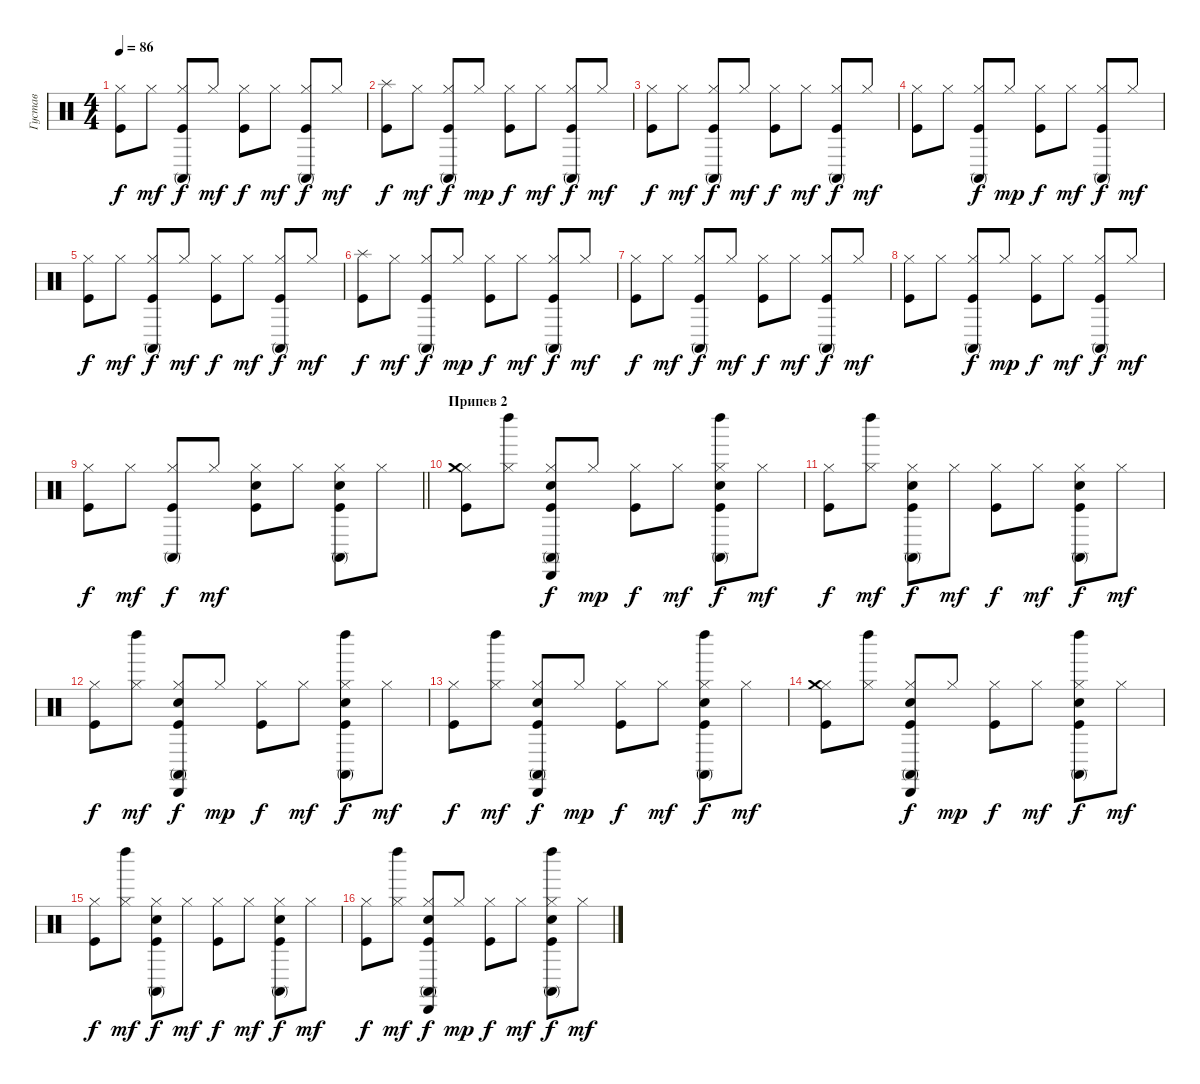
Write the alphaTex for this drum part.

\track ("Густав" "Густав") {instrument percussion}
\staff {score}
\articulation defaults
\ts (4 4)
\tempo 86
\clef neutral
\ks c
("Hi-Hat (closed)" "Kick (hit)").8{dy f} "Hi-Hat (closed)".8{dy mf} ("Conga high (mute)" "Hi-Hat (closed)" "Kick (hit)").8{dy f} "Hi-Hat (closed)".8{dy mf} ("Hi-Hat (closed)" "Kick (hit)").8{dy f} "Hi-Hat (closed)".8{dy mf} ("Conga high (mute)" "Hi-Hat (closed)" "Kick (hit)").8{dy f} "Hi-Hat (closed)".8{dy mf} |
("Splash (hit)" "Kick (hit)").8{dy f} "Hi-Hat (closed)".8{dy mf} ("Conga high (mute)" "Hi-Hat (closed)" "Kick (hit)").8{dy f} "Hi-Hat (closed)".8{dy mp} ("Hi-Hat (closed)" "Kick (hit)").8{dy f} "Hi-Hat (closed)".8{dy mf} ("Conga high (mute)" "Hi-Hat (closed)" "Kick (hit)").8{dy f} "Hi-Hat (closed)".8{dy mf} |
("Hi-Hat (closed)" "Kick (hit)").8{dy f} "Hi-Hat (closed)".8{dy mf} ("Conga high (mute)" "Hi-Hat (closed)" "Kick (hit)").8{dy f} "Hi-Hat (closed)".8{dy mf} ("Hi-Hat (closed)" "Kick (hit)").8{dy f} "Hi-Hat (closed)".8{dy mf} ("Conga high (mute)" "Hi-Hat (closed)" "Kick (hit)").8{dy f} "Hi-Hat (closed)".8{dy mf} |
("Hi-Hat (closed)" "Kick (hit)").8 "Hi-Hat (closed)".8 ("Conga high (mute)" "Hi-Hat (closed)" "Kick (hit)").8{dy f} "Hi-Hat (closed)".8{dy mp} ("Hi-Hat (closed)" "Kick (hit)").8{dy f} "Hi-Hat (closed)".8{dy mf} ("Conga high (mute)" "Hi-Hat (closed)" "Kick (hit)").8{dy f} "Hi-Hat (closed)".8{dy mf} |
("Hi-Hat (closed)" "Kick (hit)").8{dy f} "Hi-Hat (closed)".8{dy mf} ("Conga high (mute)" "Hi-Hat (closed)" "Kick (hit)").8{dy f} "Hi-Hat (closed)".8{dy mf} ("Hi-Hat (closed)" "Kick (hit)").8{dy f} "Hi-Hat (closed)".8{dy mf} ("Conga high (mute)" "Hi-Hat (closed)" "Kick (hit)").8{dy f} "Hi-Hat (closed)".8{dy mf} |
("Splash (hit)" "Kick (hit)").8{dy f} "Hi-Hat (closed)".8{dy mf} ("Conga high (mute)" "Hi-Hat (closed)" "Kick (hit)").8{dy f} "Hi-Hat (closed)".8{dy mp} ("Hi-Hat (closed)" "Kick (hit)").8{dy f} "Hi-Hat (closed)".8{dy mf} ("Conga high (mute)" "Hi-Hat (closed)" "Kick (hit)").8{dy f} "Hi-Hat (closed)".8{dy mf} |
("Hi-Hat (closed)" "Kick (hit)").8{dy f} "Hi-Hat (closed)".8{dy mf} ("Conga high (mute)" "Hi-Hat (closed)" "Kick (hit)").8{dy f} "Hi-Hat (closed)".8{dy mf} ("Hi-Hat (closed)" "Kick (hit)").8{dy f} "Hi-Hat (closed)".8{dy mf} ("Conga high (mute)" "Hi-Hat (closed)" "Kick (hit)").8{dy f} "Hi-Hat (closed)".8{dy mf} |
("Hi-Hat (closed)" "Kick (hit)").8 "Hi-Hat (closed)".8 ("Conga high (mute)" "Hi-Hat (closed)" "Kick (hit)").8{dy f} "Hi-Hat (closed)".8{dy mp} ("Hi-Hat (closed)" "Kick (hit)").8{dy f} "Hi-Hat (closed)".8{dy mf} ("Conga high (mute)" "Hi-Hat (closed)" "Kick (hit)").8{dy f} "Hi-Hat (closed)".8{dy mf} |
\barLineRight lightlight
("Hi-Hat (closed)" "Kick (hit)").8{dy f} "Hi-Hat (closed)".8{dy mf} ("Conga high (mute)" "Hi-Hat (closed)" "Kick (hit)").8{dy f} "Hi-Hat (closed)".8{dy mf} ("Hi-Hat (closed)" "Kick (hit)" "Snare (hit) 2").8 "Hi-Hat (closed)".8 ("Snare (hit) 2" "Conga high (mute)" "Hi-Hat (closed)" "Kick (hit)").8 "Hi-Hat (closed)".8 |
\section ("" "Припев 2")
("Hi-Hat (closed)" "Crash medium (hit)" "Kick (hit)").8 ("Hi-Hat (closed)" "Left Maraca (hit)").8 ("Cabasa (hit)" "Snare (hit) 2" "Conga high (mute)" "Hi-Hat (closed)" "Kick (hit)").8{dy f} "Hi-Hat (closed)".8{dy mp} ("Hi-Hat (closed)" "Kick (hit)").8{dy f} "Hi-Hat (closed)".8{dy mf} ("Left Maraca (hit)" "Snare (hit) 2" "Conga high (mute)" "Hi-Hat (closed)" "Kick (hit)").8{dy f} "Hi-Hat (closed)".8{dy mf} |
("Hi-Hat (closed)" "Kick (hit)").8{dy f} ("Hi-Hat (closed)" "Left Maraca (hit)").8{dy mf} ("Snare (hit) 2" "Conga high (mute)" "Hi-Hat (closed)" "Kick (hit)").8{dy f} "Hi-Hat (closed)".8{dy mf} ("Hi-Hat (closed)" "Kick (hit)").8{dy f} "Hi-Hat (closed)".8{dy mf} ("Snare (hit) 2" "Conga high (mute)" "Hi-Hat (closed)" "Kick (hit)").8{dy f} "Hi-Hat (closed)".8{dy mf} |
("Hi-Hat (closed)" "Kick (hit)").8{dy f} ("Hi-Hat (closed)" "Left Maraca (hit)").8{dy mf} ("Cabasa (hit)" "Snare (hit) 2" "Conga high (mute)" "Hi-Hat (closed)" "Kick (hit)").8{dy f} "Hi-Hat (closed)".8{dy mp} ("Hi-Hat (closed)" "Kick (hit)").8{dy f} "Hi-Hat (closed)".8{dy mf} ("Left Maraca (hit)" "Snare (hit) 2" "Conga high (mute)" "Hi-Hat (closed)" "Kick (hit)").8{dy f} "Hi-Hat (closed)".8{dy mf} |
("Hi-Hat (closed)" "Kick (hit)").8{dy f} ("Hi-Hat (closed)" "Left Maraca (hit)").8{dy mf} ("Cabasa (hit)" "Snare (hit) 2" "Conga high (mute)" "Hi-Hat (closed)" "Kick (hit)").8{dy f} "Hi-Hat (closed)".8{dy mp} ("Hi-Hat (closed)" "Kick (hit)").8{dy f} "Hi-Hat (closed)".8{dy mf} ("Left Maraca (hit)" "Snare (hit) 2" "Conga high (mute)" "Hi-Hat (closed)" "Kick (hit)").8{dy f} "Hi-Hat (closed)".8{dy mf} |
("Hi-Hat (closed)" "Crash medium (hit)" "Kick (hit)").8 ("Hi-Hat (closed)" "Left Maraca (hit)").8 ("Cabasa (hit)" "Snare (hit) 2" "Conga high (mute)" "Hi-Hat (closed)" "Kick (hit)").8{dy f} "Hi-Hat (closed)".8{dy mp} ("Hi-Hat (closed)" "Kick (hit)").8{dy f} "Hi-Hat (closed)".8{dy mf} ("Left Maraca (hit)" "Snare (hit) 2" "Conga high (mute)" "Hi-Hat (closed)" "Kick (hit)").8{dy f} "Hi-Hat (closed)".8{dy mf} |
("Hi-Hat (closed)" "Kick (hit)").8{dy f} ("Hi-Hat (closed)" "Left Maraca (hit)").8{dy mf} ("Snare (hit) 2" "Conga high (mute)" "Hi-Hat (closed)" "Kick (hit)").8{dy f} "Hi-Hat (closed)".8{dy mf} ("Hi-Hat (closed)" "Kick (hit)").8{dy f} "Hi-Hat (closed)".8{dy mf} ("Snare (hit) 2" "Conga high (mute)" "Hi-Hat (closed)" "Kick (hit)").8{dy f} "Hi-Hat (closed)".8{dy mf} |
("Hi-Hat (closed)" "Kick (hit)").8{dy f} ("Hi-Hat (closed)" "Left Maraca (hit)").8{dy mf} ("Cabasa (hit)" "Snare (hit) 2" "Conga high (mute)" "Hi-Hat (closed)" "Kick (hit)").8{dy f} "Hi-Hat (closed)".8{dy mp} ("Hi-Hat (closed)" "Kick (hit)").8{dy f} "Hi-Hat (closed)".8{dy mf} ("Left Maraca (hit)" "Snare (hit) 2" "Conga high (mute)" "Hi-Hat (closed)" "Kick (hit)").8{dy f} "Hi-Hat (closed)".8{dy mf}
